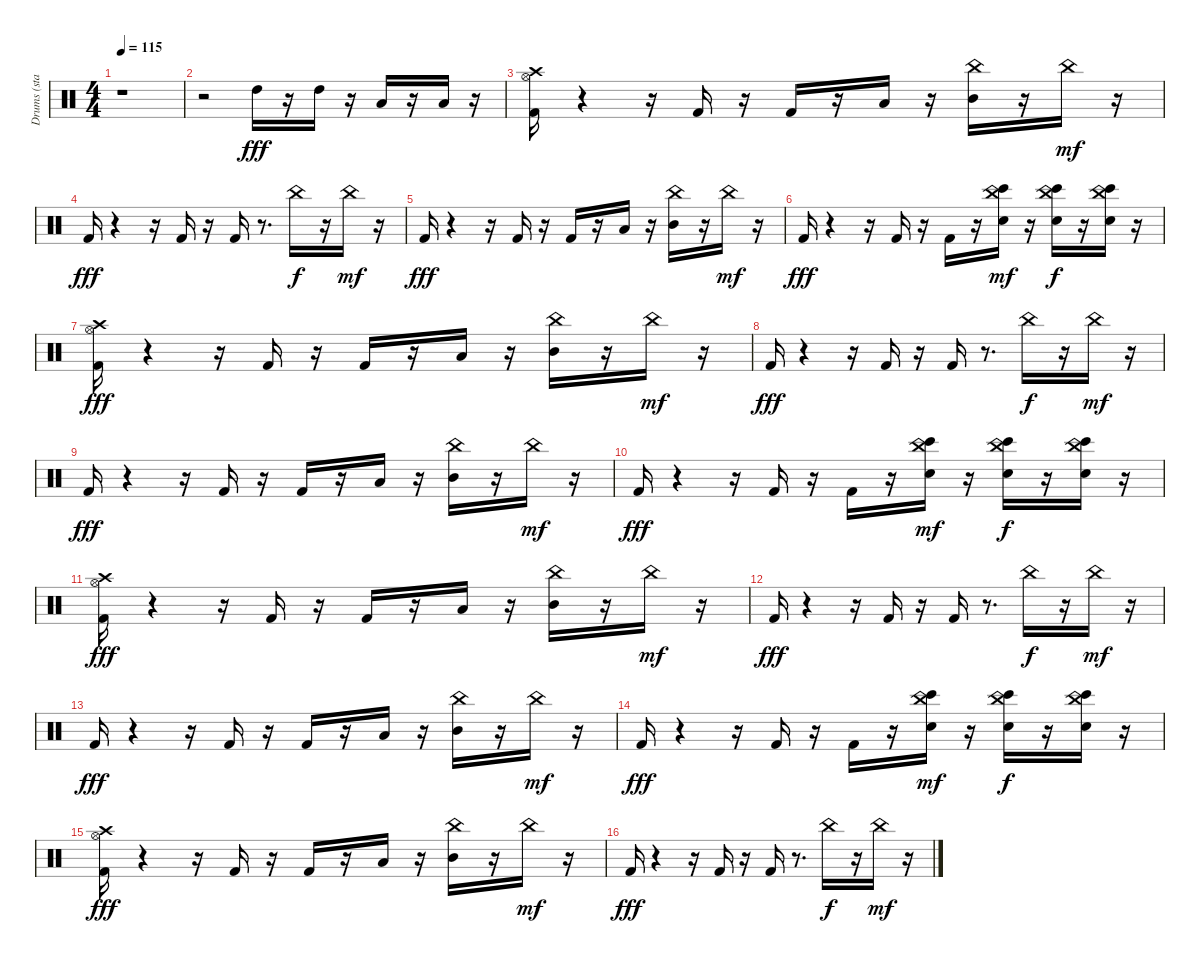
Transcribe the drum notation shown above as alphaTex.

\track ("Drums (stand.set)   " "Drums (sta") {instrument percussion}
\staff {score}
\articulation defaults
\ts (4 4)
\tempo 115
\clef neutral
\ks c
r.1{dy fff} |
r.2 "High Tom (hit)".16{balance 0} r.16 "High Tom (hit)".16 r.16 "Low Tom (hit)".16{balance 15} r.16 "Low Tom (hit)".16 r.16 |
("Kick (hit) 2" "Hi-Hat (open)" "Crash high (hit)").16{balance 8} r.4 r.16 "Kick (hit) 2".16 r.16 "Kick (hit) 2".16 r.16 "Low Tom (hit)".16 r.16 ("Mid Tom (hit)" "China (hit)").16 r.16 "China (hit)".16{dy mf} r.16 |
"Kick (hit) 2".16{dy fff} r.4 r.16 "Kick (hit) 2".16 r.16 "Kick (hit) 2".16 r.8{d} "China (hit)".16{dy f} r.16 "China (hit)".16{dy mf} r.16 |
"Kick (hit) 2".16{dy fff} r.4 r.16 "Kick (hit) 2".16 r.16 "Kick (hit) 2".16 r.16 "Low Tom (hit)".16 r.16 ("Mid Tom (hit)" "China (hit)").16 r.16 "China (hit)".16{dy mf} r.16 |
"Kick (hit) 2".16{dy fff} r.4 r.16 "Kick (hit) 2".16 r.16 "Kick (hit) 2".16 r.16 ("Bongo High (hit)" "Hand Clap (hit)" "China (hit)").16{dy mf} r.16 ("Bongo High (hit)" "Hand Clap (hit)" "China (hit)").16{dy f} r.16 ("Bongo High (hit)" "Hand Clap (hit)" "China (hit)").16 r.16 |
("Kick (hit) 2" "Hi-Hat (open)" "Crash high (hit)").16{dy fff} r.4 r.16 "Kick (hit) 2".16 r.16 "Kick (hit) 2".16 r.16 "Low Tom (hit)".16 r.16 ("Mid Tom (hit)" "China (hit)").16 r.16 "China (hit)".16{dy mf} r.16 |
"Kick (hit) 2".16{dy fff} r.4 r.16 "Kick (hit) 2".16 r.16 "Kick (hit) 2".16 r.8{d} "China (hit)".16{dy f} r.16 "China (hit)".16{dy mf} r.16 |
"Kick (hit) 2".16{dy fff} r.4 r.16 "Kick (hit) 2".16 r.16 "Kick (hit) 2".16 r.16 "Low Tom (hit)".16 r.16 ("Mid Tom (hit)" "China (hit)").16 r.16 "China (hit)".16{dy mf} r.16 |
"Kick (hit) 2".16{dy fff} r.4 r.16 "Kick (hit) 2".16 r.16 "Kick (hit) 2".16 r.16 ("Bongo High (hit)" "Hand Clap (hit)" "China (hit)").16{dy mf} r.16 ("Bongo High (hit)" "Hand Clap (hit)" "China (hit)").16{dy f} r.16 ("Bongo High (hit)" "Hand Clap (hit)" "China (hit)").16 r.16 |
("Kick (hit) 2" "Hi-Hat (open)" "Crash high (hit)").16{dy fff} r.4 r.16 "Kick (hit) 2".16 r.16 "Kick (hit) 2".16 r.16 "Low Tom (hit)".16 r.16 ("Mid Tom (hit)" "China (hit)").16 r.16 "China (hit)".16{dy mf} r.16 |
"Kick (hit) 2".16{dy fff} r.4 r.16 "Kick (hit) 2".16 r.16 "Kick (hit) 2".16 r.8{d} "China (hit)".16{dy f} r.16 "China (hit)".16{dy mf} r.16 |
"Kick (hit) 2".16{dy fff} r.4 r.16 "Kick (hit) 2".16 r.16 "Kick (hit) 2".16 r.16 "Low Tom (hit)".16 r.16 ("Mid Tom (hit)" "China (hit)").16 r.16 "China (hit)".16{dy mf} r.16 |
"Kick (hit) 2".16{dy fff} r.4 r.16 "Kick (hit) 2".16 r.16 "Kick (hit) 2".16 r.16 ("Bongo High (hit)" "Hand Clap (hit)" "China (hit)").16{dy mf} r.16 ("Bongo High (hit)" "Hand Clap (hit)" "China (hit)").16{dy f} r.16 ("Bongo High (hit)" "Hand Clap (hit)" "China (hit)").16 r.16 |
("Kick (hit) 2" "Hi-Hat (open)" "Crash high (hit)").16{dy fff} r.4 r.16 "Kick (hit) 2".16 r.16 "Kick (hit) 2".16 r.16 "Low Tom (hit)".16 r.16 ("Mid Tom (hit)" "China (hit)").16 r.16 "China (hit)".16{dy mf} r.16 |
"Kick (hit) 2".16{dy fff} r.4 r.16 "Kick (hit) 2".16 r.16 "Kick (hit) 2".16 r.8{d} "China (hit)".16{dy f} r.16 "China (hit)".16{dy mf} r.16
